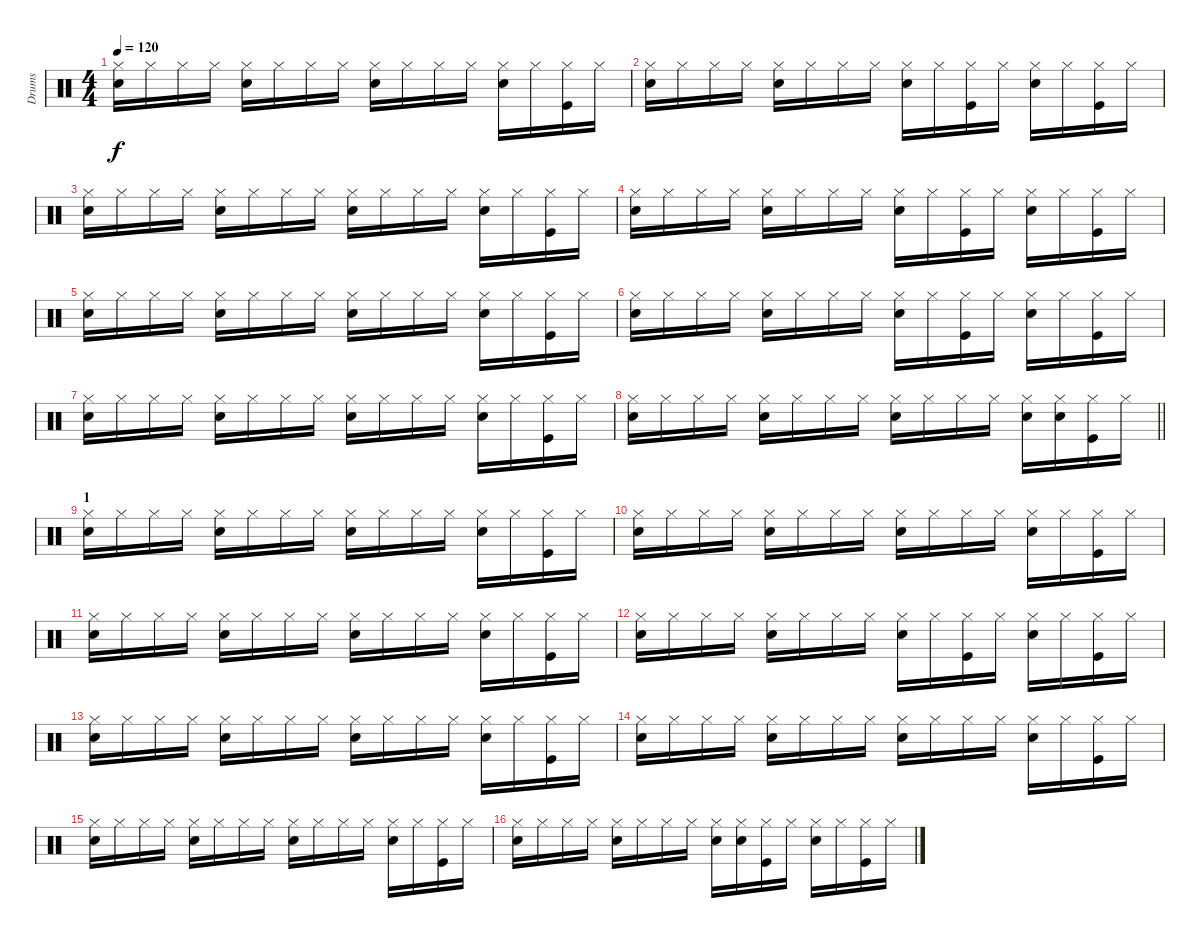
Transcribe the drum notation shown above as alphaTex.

\track ("Drums" "Drums") {instrument percussion}
\staff {score}
\articulation defaults
\ts (4 4)
\tempo 120
\clef neutral
\ks c
("Snare (hit) 2" "Hi-Hat (closed)").16{dy f} "Hi-Hat (closed)".16 "Hi-Hat (closed)".16 "Hi-Hat (closed)".16 ("Snare (hit) 2" "Hi-Hat (closed)").16 "Hi-Hat (closed)".16 "Hi-Hat (closed)".16 "Hi-Hat (closed)".16 ("Snare (hit) 2" "Hi-Hat (closed)").16 "Hi-Hat (closed)".16 "Hi-Hat (closed)".16 "Hi-Hat (closed)".16 ("Snare (hit) 2" "Hi-Hat (closed)").16 "Hi-Hat (closed)".16 ("Kick (hit)" "Hi-Hat (closed)").16 "Hi-Hat (closed)".16 |
("Snare (hit) 2" "Hi-Hat (closed)").16 "Hi-Hat (closed)".16 "Hi-Hat (closed)".16 "Hi-Hat (closed)".16 ("Snare (hit) 2" "Hi-Hat (closed)").16 "Hi-Hat (closed)".16 "Hi-Hat (closed)".16 "Hi-Hat (closed)".16 ("Snare (hit) 2" "Hi-Hat (closed)").16 "Hi-Hat (closed)".16 ("Kick (hit)" "Hi-Hat (closed)").16 "Hi-Hat (closed)".16 ("Snare (hit) 2" "Hi-Hat (closed)").16 "Hi-Hat (closed)".16 ("Kick (hit)" "Hi-Hat (closed)").16 "Hi-Hat (closed)".16 |
("Snare (hit) 2" "Hi-Hat (closed)").16 "Hi-Hat (closed)".16 "Hi-Hat (closed)".16 "Hi-Hat (closed)".16 ("Snare (hit) 2" "Hi-Hat (closed)").16 "Hi-Hat (closed)".16 "Hi-Hat (closed)".16 "Hi-Hat (closed)".16 ("Snare (hit) 2" "Hi-Hat (closed)").16 "Hi-Hat (closed)".16 "Hi-Hat (closed)".16 "Hi-Hat (closed)".16 ("Snare (hit) 2" "Hi-Hat (closed)").16 "Hi-Hat (closed)".16 ("Kick (hit)" "Hi-Hat (closed)").16 "Hi-Hat (closed)".16 |
("Snare (hit) 2" "Hi-Hat (closed)").16 "Hi-Hat (closed)".16 "Hi-Hat (closed)".16 "Hi-Hat (closed)".16 ("Snare (hit) 2" "Hi-Hat (closed)").16 "Hi-Hat (closed)".16 "Hi-Hat (closed)".16 "Hi-Hat (closed)".16 ("Snare (hit) 2" "Hi-Hat (closed)").16 "Hi-Hat (closed)".16 ("Kick (hit)" "Hi-Hat (closed)").16 "Hi-Hat (closed)".16 ("Snare (hit) 2" "Hi-Hat (closed)").16 "Hi-Hat (closed)".16 ("Kick (hit)" "Hi-Hat (closed)").16 "Hi-Hat (closed)".16 |
("Snare (hit) 2" "Hi-Hat (closed)").16 "Hi-Hat (closed)".16 "Hi-Hat (closed)".16 "Hi-Hat (closed)".16 ("Snare (hit) 2" "Hi-Hat (closed)").16 "Hi-Hat (closed)".16 "Hi-Hat (closed)".16 "Hi-Hat (closed)".16 ("Snare (hit) 2" "Hi-Hat (closed)").16 "Hi-Hat (closed)".16 "Hi-Hat (closed)".16 "Hi-Hat (closed)".16 ("Snare (hit) 2" "Hi-Hat (closed)").16 "Hi-Hat (closed)".16 ("Kick (hit)" "Hi-Hat (closed)").16 "Hi-Hat (closed)".16 |
("Snare (hit) 2" "Hi-Hat (closed)").16 "Hi-Hat (closed)".16 "Hi-Hat (closed)".16 "Hi-Hat (closed)".16 ("Snare (hit) 2" "Hi-Hat (closed)").16 "Hi-Hat (closed)".16 "Hi-Hat (closed)".16 "Hi-Hat (closed)".16 ("Snare (hit) 2" "Hi-Hat (closed)").16 "Hi-Hat (closed)".16 ("Kick (hit)" "Hi-Hat (closed)").16 "Hi-Hat (closed)".16 ("Snare (hit) 2" "Hi-Hat (closed)").16 "Hi-Hat (closed)".16 ("Kick (hit)" "Hi-Hat (closed)").16 "Hi-Hat (closed)".16 |
("Snare (hit) 2" "Hi-Hat (closed)").16 "Hi-Hat (closed)".16 "Hi-Hat (closed)".16 "Hi-Hat (closed)".16 ("Snare (hit) 2" "Hi-Hat (closed)").16 "Hi-Hat (closed)".16 "Hi-Hat (closed)".16 "Hi-Hat (closed)".16 ("Snare (hit) 2" "Hi-Hat (closed)").16 "Hi-Hat (closed)".16 "Hi-Hat (closed)".16 "Hi-Hat (closed)".16 ("Snare (hit) 2" "Hi-Hat (closed)").16 "Hi-Hat (closed)".16 ("Kick (hit)" "Hi-Hat (closed)").16 "Hi-Hat (closed)".16 |
\barLineRight lightlight
("Snare (hit) 2" "Hi-Hat (closed)").16 "Hi-Hat (closed)".16 "Hi-Hat (closed)".16 "Hi-Hat (closed)".16 ("Snare (hit) 2" "Hi-Hat (closed)").16 "Hi-Hat (closed)".16 "Hi-Hat (closed)".16 "Hi-Hat (closed)".16 ("Snare (hit) 2" "Hi-Hat (closed)").16 "Hi-Hat (closed)".16 "Hi-Hat (closed)".16 "Hi-Hat (closed)".16 ("Snare (hit) 2" "Hi-Hat (closed)").16 ("Snare (hit) 2" "Hi-Hat (closed)").16 ("Kick (hit)" "Hi-Hat (closed)").16 "Hi-Hat (closed)".16 |
\section ("" "1")
("Snare (hit) 2" "Hi-Hat (closed)").16 "Hi-Hat (closed)".16 "Hi-Hat (closed)".16 "Hi-Hat (closed)".16 ("Snare (hit) 2" "Hi-Hat (closed)").16 "Hi-Hat (closed)".16 "Hi-Hat (closed)".16 "Hi-Hat (closed)".16 ("Snare (hit) 2" "Hi-Hat (closed)").16 "Hi-Hat (closed)".16 "Hi-Hat (closed)".16 "Hi-Hat (closed)".16 ("Snare (hit) 2" "Hi-Hat (closed)").16 "Hi-Hat (closed)".16 ("Kick (hit)" "Hi-Hat (closed)").16 "Hi-Hat (closed)".16 |
("Snare (hit) 2" "Hi-Hat (closed)").16 "Hi-Hat (closed)".16 "Hi-Hat (closed)".16 "Hi-Hat (closed)".16 ("Snare (hit) 2" "Hi-Hat (closed)").16 "Hi-Hat (closed)".16 "Hi-Hat (closed)".16 "Hi-Hat (closed)".16 ("Snare (hit) 2" "Hi-Hat (closed)").16 "Hi-Hat (closed)".16 "Hi-Hat (closed)".16 "Hi-Hat (closed)".16 ("Snare (hit) 2" "Hi-Hat (closed)").16 "Hi-Hat (closed)".16 ("Kick (hit)" "Hi-Hat (closed)").16 "Hi-Hat (closed)".16 |
("Snare (hit) 2" "Hi-Hat (closed)").16 "Hi-Hat (closed)".16 "Hi-Hat (closed)".16 "Hi-Hat (closed)".16 ("Snare (hit) 2" "Hi-Hat (closed)").16 "Hi-Hat (closed)".16 "Hi-Hat (closed)".16 "Hi-Hat (closed)".16 ("Snare (hit) 2" "Hi-Hat (closed)").16 "Hi-Hat (closed)".16 "Hi-Hat (closed)".16 "Hi-Hat (closed)".16 ("Snare (hit) 2" "Hi-Hat (closed)").16 "Hi-Hat (closed)".16 ("Kick (hit)" "Hi-Hat (closed)").16 "Hi-Hat (closed)".16 |
("Snare (hit) 2" "Hi-Hat (closed)").16 "Hi-Hat (closed)".16 "Hi-Hat (closed)".16 "Hi-Hat (closed)".16 ("Snare (hit) 2" "Hi-Hat (closed)").16 "Hi-Hat (closed)".16 "Hi-Hat (closed)".16 "Hi-Hat (closed)".16 ("Snare (hit) 2" "Hi-Hat (closed)").16 "Hi-Hat (closed)".16 ("Kick (hit)" "Hi-Hat (closed)").16 "Hi-Hat (closed)".16 ("Snare (hit) 2" "Hi-Hat (closed)").16 "Hi-Hat (closed)".16 ("Kick (hit)" "Hi-Hat (closed)").16 "Hi-Hat (closed)".16 |
("Snare (hit) 2" "Hi-Hat (closed)").16 "Hi-Hat (closed)".16 "Hi-Hat (closed)".16 "Hi-Hat (closed)".16 ("Snare (hit) 2" "Hi-Hat (closed)").16 "Hi-Hat (closed)".16 "Hi-Hat (closed)".16 "Hi-Hat (closed)".16 ("Snare (hit) 2" "Hi-Hat (closed)").16 "Hi-Hat (closed)".16 "Hi-Hat (closed)".16 "Hi-Hat (closed)".16 ("Snare (hit) 2" "Hi-Hat (closed)").16 "Hi-Hat (closed)".16 ("Kick (hit)" "Hi-Hat (closed)").16 "Hi-Hat (closed)".16 |
("Snare (hit) 2" "Hi-Hat (closed)").16 "Hi-Hat (closed)".16 "Hi-Hat (closed)".16 "Hi-Hat (closed)".16 ("Snare (hit) 2" "Hi-Hat (closed)").16 "Hi-Hat (closed)".16 "Hi-Hat (closed)".16 "Hi-Hat (closed)".16 ("Snare (hit) 2" "Hi-Hat (closed)").16 "Hi-Hat (closed)".16 "Hi-Hat (closed)".16 "Hi-Hat (closed)".16 ("Snare (hit) 2" "Hi-Hat (closed)").16 "Hi-Hat (closed)".16 ("Kick (hit)" "Hi-Hat (closed)").16 "Hi-Hat (closed)".16 |
("Snare (hit) 2" "Hi-Hat (closed)").16 "Hi-Hat (closed)".16 "Hi-Hat (closed)".16 "Hi-Hat (closed)".16 ("Snare (hit) 2" "Hi-Hat (closed)").16 "Hi-Hat (closed)".16 "Hi-Hat (closed)".16 "Hi-Hat (closed)".16 ("Snare (hit) 2" "Hi-Hat (closed)").16 "Hi-Hat (closed)".16 "Hi-Hat (closed)".16 "Hi-Hat (closed)".16 ("Snare (hit) 2" "Hi-Hat (closed)").16 "Hi-Hat (closed)".16 ("Kick (hit)" "Hi-Hat (closed)").16 "Hi-Hat (closed)".16 |
("Snare (hit) 2" "Hi-Hat (closed)").16 "Hi-Hat (closed)".16 "Hi-Hat (closed)".16 "Hi-Hat (closed)".16 ("Snare (hit) 2" "Hi-Hat (closed)").16 "Hi-Hat (closed)".16 "Hi-Hat (closed)".16 "Hi-Hat (closed)".16 ("Snare (hit) 2" "Hi-Hat (closed)").16 ("Snare (hit) 2" "Hi-Hat (closed)").16 ("Kick (hit)" "Hi-Hat (closed)").16 "Hi-Hat (closed)".16 ("Snare (hit) 2" "Hi-Hat (closed)").16 "Hi-Hat (closed)".16 ("Kick (hit)" "Hi-Hat (closed)").16 "Hi-Hat (closed)".16
